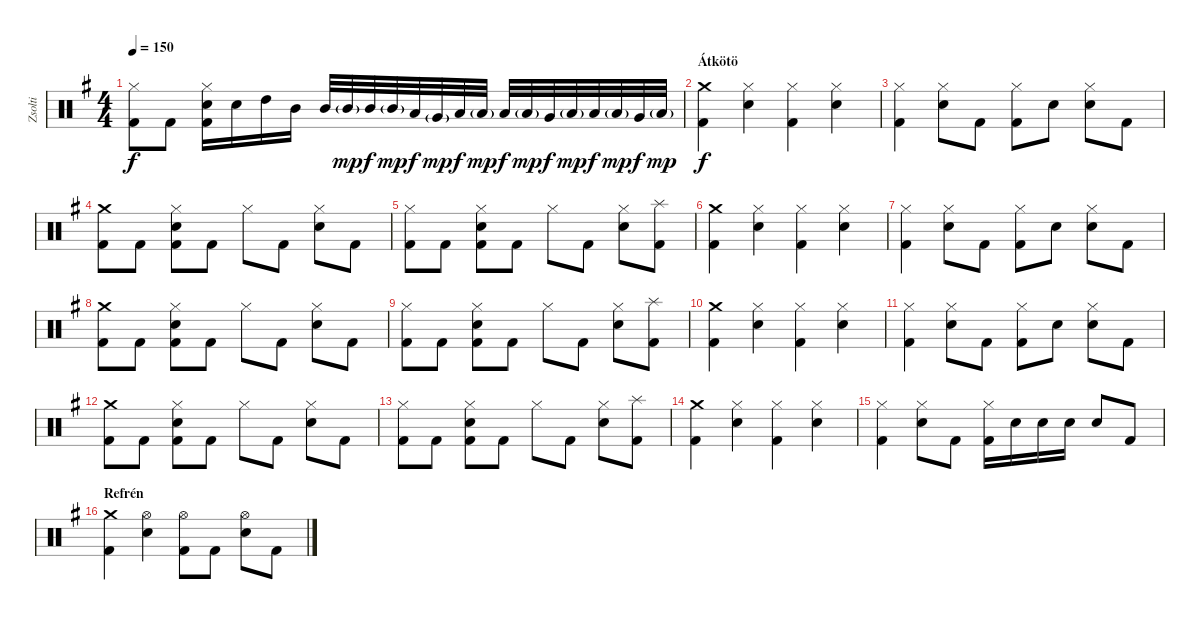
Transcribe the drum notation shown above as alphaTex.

\track ("Zsolti" "Zsolti") {instrument percussion}
\staff {score}
\articulation defaults
\ts (4 4)
\tempo 150
\clef neutral
\ks eminor
("Hi-Hat (closed)" "Kick (hit) 2").8{dy f} "Kick (hit) 2".8 ("Hi-Hat (closed)" "Snare (hit) 2" "Kick (hit) 2").16 "Snare (hit) 2".16 "High Tom (hit)".16 "Mid Tom (hit)".16 "Mid Tom (hit)".32 "Mid Tom (hit)"{g}.32{dy mp} "Mid Tom (hit)".32{dy f} "Mid Tom (hit)"{g}.32{dy mp} "Low Tom (hit)".32{dy f} "Very Low Tom (hit)"{g}.32{dy mp} "Low Tom (hit)".32{dy f} "Low Tom (hit)"{g}.32{dy mp} "Low Tom (hit)".32{dy f} "Low Tom (hit)"{g}.32{dy mp} "Very Low Tom (hit)".32{dy f} "Low Floor Tom (hit)"{g}.32{dy mp} "Low Tom (hit)".32{dy f} "Low Tom (hit)"{g}.32{dy mp} "Very Low Tom (hit)".32{dy f} "Low Floor Tom (hit)"{g}.32{dy mp} |
\section ("" "Átkötö")
("Crash medium (hit)" "Kick (hit) 2").4{dy f} ("Hi-Hat (closed)" "Snare (hit) 2").4 ("Hi-Hat (closed)" "Kick (hit) 2").4 ("Hi-Hat (closed)" "Snare (hit) 2").4 |
("Hi-Hat (closed)" "Kick (hit) 2").4 ("Hi-Hat (closed)" "Snare (hit) 2").8 "Kick (hit) 2".8 ("Hi-Hat (closed)" "Kick (hit) 2").8 "Snare (hit) 2".8 ("Hi-Hat (closed)" "Snare (hit) 2").8 "Kick (hit) 2".8 |
("Crash medium (hit)" "Kick (hit) 2").8 "Kick (hit) 2".8 ("Hi-Hat (closed)" "Snare (hit) 2" "Kick (hit) 2").8 "Kick (hit) 2".8 "Hi-Hat (closed)".8 "Kick (hit) 2".8 ("Hi-Hat (closed)" "Snare (hit) 2").8 "Kick (hit) 2".8 |
("Hi-Hat (closed)" "Kick (hit) 2").8 "Kick (hit) 2".8 ("Hi-Hat (closed)" "Snare (hit) 2" "Kick (hit) 2").8 "Kick (hit) 2".8 "Hi-Hat (closed)".8 "Kick (hit) 2".8 ("Hi-Hat (closed)" "Snare (hit) 2").8 ("Splash (hit)" "Kick (hit) 2").8 |
("Crash medium (hit)" "Kick (hit) 2").4 ("Hi-Hat (closed)" "Snare (hit) 2").4 ("Hi-Hat (closed)" "Kick (hit) 2").4 ("Hi-Hat (closed)" "Snare (hit) 2").4 |
("Hi-Hat (closed)" "Kick (hit) 2").4 ("Hi-Hat (closed)" "Snare (hit) 2").8 "Kick (hit) 2".8 ("Hi-Hat (closed)" "Kick (hit) 2").8 "Snare (hit) 2".8 ("Hi-Hat (closed)" "Snare (hit) 2").8 "Kick (hit) 2".8 |
("Crash medium (hit)" "Kick (hit) 2").8 "Kick (hit) 2".8 ("Hi-Hat (closed)" "Snare (hit) 2" "Kick (hit) 2").8 "Kick (hit) 2".8 "Hi-Hat (closed)".8 "Kick (hit) 2".8 ("Hi-Hat (closed)" "Snare (hit) 2").8 "Kick (hit) 2".8 |
("Hi-Hat (closed)" "Kick (hit) 2").8 "Kick (hit) 2".8 ("Hi-Hat (closed)" "Snare (hit) 2" "Kick (hit) 2").8 "Kick (hit) 2".8 "Hi-Hat (closed)".8 "Kick (hit) 2".8 ("Hi-Hat (closed)" "Snare (hit) 2").8 ("Splash (hit)" "Kick (hit) 2").8 |
("Crash medium (hit)" "Kick (hit) 2").4 ("Hi-Hat (closed)" "Snare (hit) 2").4 ("Hi-Hat (closed)" "Kick (hit) 2").4 ("Hi-Hat (closed)" "Snare (hit) 2").4 |
("Hi-Hat (closed)" "Kick (hit) 2").4 ("Hi-Hat (closed)" "Snare (hit) 2").8 "Kick (hit) 2".8 ("Hi-Hat (closed)" "Kick (hit) 2").8 "Snare (hit) 2".8 ("Hi-Hat (closed)" "Snare (hit) 2").8 "Kick (hit) 2".8 |
("Crash medium (hit)" "Kick (hit) 2").8 "Kick (hit) 2".8 ("Hi-Hat (closed)" "Snare (hit) 2" "Kick (hit) 2").8 "Kick (hit) 2".8 "Hi-Hat (closed)".8 "Kick (hit) 2".8 ("Hi-Hat (closed)" "Snare (hit) 2").8 "Kick (hit) 2".8 |
("Hi-Hat (closed)" "Kick (hit) 2").8 "Kick (hit) 2".8 ("Hi-Hat (closed)" "Snare (hit) 2" "Kick (hit) 2").8 "Kick (hit) 2".8 "Hi-Hat (closed)".8 "Kick (hit) 2".8 ("Hi-Hat (closed)" "Snare (hit) 2").8 ("Splash (hit)" "Kick (hit) 2").8 |
("Crash medium (hit)" "Kick (hit) 2").4 ("Hi-Hat (closed)" "Snare (hit) 2").4 ("Hi-Hat (closed)" "Kick (hit) 2").4 ("Hi-Hat (closed)" "Snare (hit) 2").4 |
("Hi-Hat (closed)" "Kick (hit) 2").4 ("Hi-Hat (closed)" "Snare (hit) 2").8 "Kick (hit) 2".8 ("Hi-Hat (closed)" "Kick (hit) 2").16 "Snare (hit) 2".16 "Snare (hit) 2".16 "Snare (hit) 2".16 "Snare (hit) 2".8 "Kick (hit) 2".8 |
\section ("" "Refrén")
("Crash medium (hit)" "Kick (hit) 2").4 ("Hi-Hat (open)" "Snare (hit) 2").4 ("Hi-Hat (open)" "Kick (hit) 2").8 "Kick (hit) 2".8 ("Hi-Hat (open)" "Snare (hit) 2").8 "Kick (hit) 2".8
